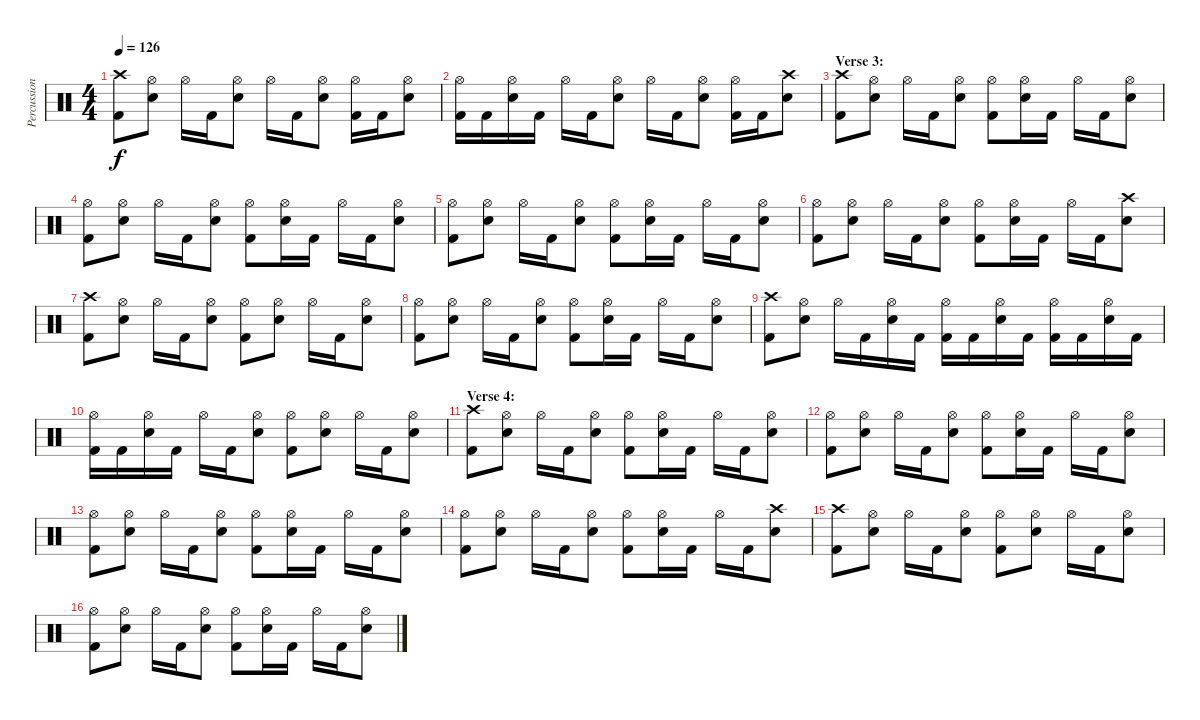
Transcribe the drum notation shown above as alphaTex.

\track ("Percussion" "Percussion") {instrument percussion}
\staff {score}
\articulation defaults
\ts (4 4)
\tempo 126
\clef neutral
\ks c
("Crash high (hit)" "Kick (hit) 2").8{dy f} ("Hi-Hat (open)" "Snare (hit) 2").8 "Hi-Hat (open)".16 "Kick (hit) 2".16 ("Hi-Hat (open)" "Snare (hit) 2").8 "Hi-Hat (open)".16 "Kick (hit) 2".16 ("Hi-Hat (open)" "Snare (hit) 2").8 ("Hi-Hat (open)" "Kick (hit) 2").16 "Kick (hit) 2".16 ("Hi-Hat (open)" "Snare (hit) 2").8 |
("Hi-Hat (open)" "Kick (hit) 2").16 "Kick (hit) 2".16 ("Hi-Hat (open)" "Snare (hit) 2").16 "Kick (hit) 2".16 "Hi-Hat (open)".16 "Kick (hit) 2".16 ("Hi-Hat (open)" "Snare (hit) 2").8 "Hi-Hat (open)".16 "Kick (hit) 2".16 ("Hi-Hat (open)" "Snare (hit) 2").8 ("Hi-Hat (open)" "Kick (hit) 2").16 "Kick (hit) 2".16 ("Crash high (hit)" "Snare (hit) 2").8 |
\section ("" "Verse 3:")
("Crash high (hit)" "Kick (hit) 2").8 ("Hi-Hat (open)" "Snare (hit) 2").8 "Hi-Hat (open)".16 "Kick (hit) 2".16 ("Hi-Hat (open)" "Snare (hit) 2").8 ("Hi-Hat (open)" "Kick (hit) 2").8 ("Hi-Hat (open)" "Snare (hit) 2").16 "Kick (hit) 2".16 "Hi-Hat (open)".16 "Kick (hit) 2".16 ("Hi-Hat (open)" "Snare (hit) 2").8 |
("Hi-Hat (open)" "Kick (hit) 2").8 ("Hi-Hat (open)" "Snare (hit) 2").8 "Hi-Hat (open)".16 "Kick (hit) 2".16 ("Hi-Hat (open)" "Snare (hit) 2").8 ("Hi-Hat (open)" "Kick (hit) 2").8 ("Hi-Hat (open)" "Snare (hit) 2").16 "Kick (hit) 2".16 "Hi-Hat (open)".16 "Kick (hit) 2".16 ("Hi-Hat (open)" "Snare (hit) 2").8 |
("Hi-Hat (open)" "Kick (hit) 2").8 ("Hi-Hat (open)" "Snare (hit) 2").8 "Hi-Hat (open)".16 "Kick (hit) 2".16 ("Hi-Hat (open)" "Snare (hit) 2").8 ("Hi-Hat (open)" "Kick (hit) 2").8 ("Hi-Hat (open)" "Snare (hit) 2").16 "Kick (hit) 2".16 "Hi-Hat (open)".16 "Kick (hit) 2".16 ("Hi-Hat (open)" "Snare (hit) 2").8 |
("Hi-Hat (open)" "Kick (hit) 2").8 ("Hi-Hat (open)" "Snare (hit) 2").8 "Hi-Hat (open)".16 "Kick (hit) 2".16 ("Hi-Hat (open)" "Snare (hit) 2").8 ("Hi-Hat (open)" "Kick (hit) 2").8 ("Hi-Hat (open)" "Snare (hit) 2").16 "Kick (hit) 2".16 "Hi-Hat (open)".16 "Kick (hit) 2".16 ("Crash high (hit)" "Snare (hit) 2").8 |
("Crash high (hit)" "Kick (hit) 2").8 ("Hi-Hat (open)" "Snare (hit) 2").8 "Hi-Hat (open)".16 "Kick (hit) 2".16 ("Hi-Hat (open)" "Snare (hit) 2").8 ("Hi-Hat (open)" "Kick (hit) 2").8 ("Hi-Hat (open)" "Snare (hit) 2").8 "Hi-Hat (open)".16 "Kick (hit) 2".16 ("Hi-Hat (open)" "Snare (hit) 2").8 |
("Hi-Hat (open)" "Kick (hit) 2").8 ("Hi-Hat (open)" "Snare (hit) 2").8 "Hi-Hat (open)".16 "Kick (hit) 2".16 ("Hi-Hat (open)" "Snare (hit) 2").8 ("Hi-Hat (open)" "Kick (hit) 2").8 ("Hi-Hat (open)" "Snare (hit) 2").16 "Kick (hit) 2".16 "Hi-Hat (open)".16 "Kick (hit) 2".16 ("Hi-Hat (open)" "Snare (hit) 2").8 |
("Crash high (hit)" "Kick (hit) 2").8 ("Hi-Hat (open)" "Snare (hit) 2").8 "Hi-Hat (open)".16 "Kick (hit) 2".16 ("Hi-Hat (open)" "Snare (hit) 2").16 "Kick (hit) 2".16 ("Hi-Hat (open)" "Kick (hit) 2").16 "Kick (hit) 2".16 ("Hi-Hat (open)" "Snare (hit) 2").16 "Kick (hit) 2".16 ("Hi-Hat (open)" "Kick (hit) 2").16 "Kick (hit) 2".16 ("Hi-Hat (open)" "Snare (hit) 2").16 "Kick (hit) 2".16 |
("Hi-Hat (open)" "Kick (hit) 2").16 "Kick (hit) 2".16 ("Hi-Hat (open)" "Snare (hit) 2").16 "Kick (hit) 2".16 "Hi-Hat (open)".16 "Kick (hit) 2".16 ("Hi-Hat (open)" "Snare (hit) 2").8 ("Hi-Hat (open)" "Kick (hit) 2").8 ("Hi-Hat (open)" "Snare (hit) 2").8 "Hi-Hat (open)".16 "Kick (hit) 2".16 ("Hi-Hat (open)" "Snare (hit) 2").8 |
\section ("" "Verse 4:")
("Crash high (hit)" "Kick (hit) 2").8 ("Hi-Hat (open)" "Snare (hit) 2").8 "Hi-Hat (open)".16 "Kick (hit) 2".16 ("Hi-Hat (open)" "Snare (hit) 2").8 ("Hi-Hat (open)" "Kick (hit) 2").8 ("Hi-Hat (open)" "Snare (hit) 2").16 "Kick (hit) 2".16 "Hi-Hat (open)".16 "Kick (hit) 2".16 ("Hi-Hat (open)" "Snare (hit) 2").8 |
("Hi-Hat (open)" "Kick (hit) 2").8 ("Hi-Hat (open)" "Snare (hit) 2").8 "Hi-Hat (open)".16 "Kick (hit) 2".16 ("Hi-Hat (open)" "Snare (hit) 2").8 ("Hi-Hat (open)" "Kick (hit) 2").8 ("Hi-Hat (open)" "Snare (hit) 2").16 "Kick (hit) 2".16 "Hi-Hat (open)".16 "Kick (hit) 2".16 ("Hi-Hat (open)" "Snare (hit) 2").8 |
("Hi-Hat (open)" "Kick (hit) 2").8 ("Hi-Hat (open)" "Snare (hit) 2").8 "Hi-Hat (open)".16 "Kick (hit) 2".16 ("Hi-Hat (open)" "Snare (hit) 2").8 ("Hi-Hat (open)" "Kick (hit) 2").8 ("Hi-Hat (open)" "Snare (hit) 2").16 "Kick (hit) 2".16 "Hi-Hat (open)".16 "Kick (hit) 2".16 ("Hi-Hat (open)" "Snare (hit) 2").8 |
("Hi-Hat (open)" "Kick (hit) 2").8 ("Hi-Hat (open)" "Snare (hit) 2").8 "Hi-Hat (open)".16 "Kick (hit) 2".16 ("Hi-Hat (open)" "Snare (hit) 2").8 ("Hi-Hat (open)" "Kick (hit) 2").8 ("Hi-Hat (open)" "Snare (hit) 2").16 "Kick (hit) 2".16 "Hi-Hat (open)".16 "Kick (hit) 2".16 ("Crash high (hit)" "Snare (hit) 2").8 |
("Crash high (hit)" "Kick (hit) 2").8 ("Hi-Hat (open)" "Snare (hit) 2").8 "Hi-Hat (open)".16 "Kick (hit) 2".16 ("Hi-Hat (open)" "Snare (hit) 2").8 ("Hi-Hat (open)" "Kick (hit) 2").8 ("Hi-Hat (open)" "Snare (hit) 2").8 "Hi-Hat (open)".16 "Kick (hit) 2".16 ("Hi-Hat (open)" "Snare (hit) 2").8 |
("Hi-Hat (open)" "Kick (hit) 2").8 ("Hi-Hat (open)" "Snare (hit) 2").8 "Hi-Hat (open)".16 "Kick (hit) 2".16 ("Hi-Hat (open)" "Snare (hit) 2").8 ("Hi-Hat (open)" "Kick (hit) 2").8 ("Hi-Hat (open)" "Snare (hit) 2").16 "Kick (hit) 2".16 "Hi-Hat (open)".16 "Kick (hit) 2".16 ("Hi-Hat (open)" "Snare (hit) 2").8
